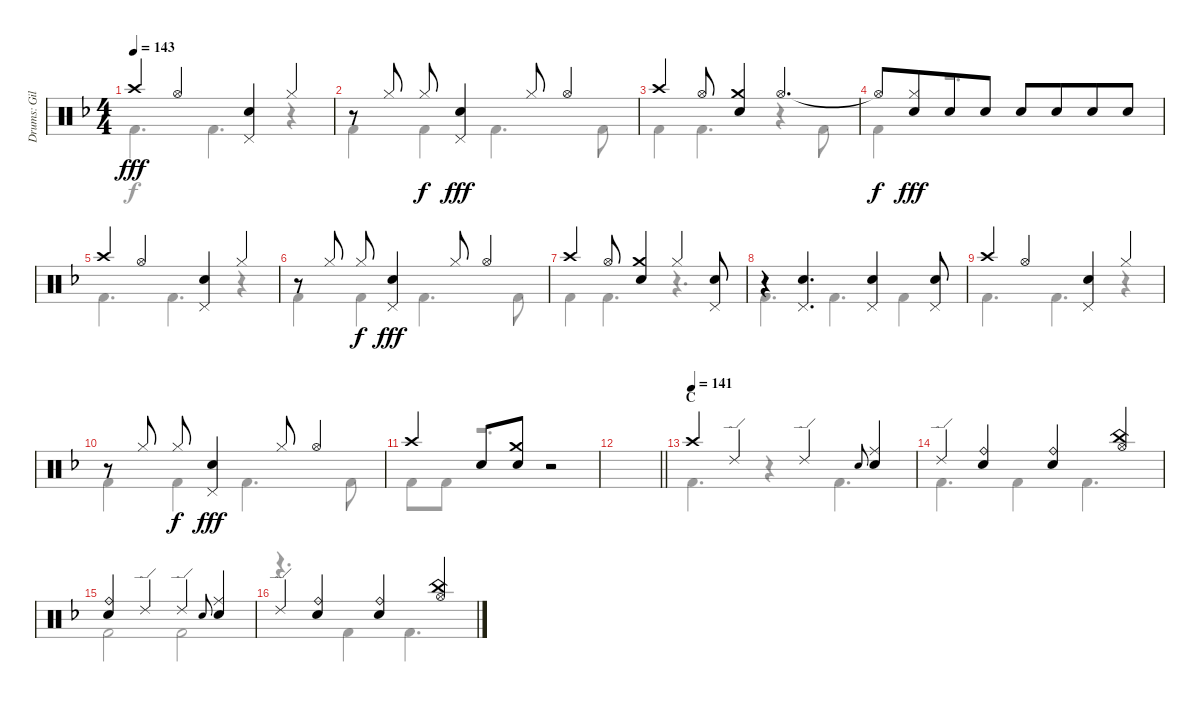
\track ("Drums: Gil" "Drums: Gil") {instrument percussion}
\staff {score}
\articulation defaults
\voice
\ts (4 4)
\tempo 143
\clef neutral
\ks f "Crash high (hit)".4{dy fff} "Hi-Hat (open)".4
("Pedal Hi-Hat (hit)" "Snare (hit) 2").4 "Hi-Hat (closed)".4 |
r.8 "Hi-Hat (closed)".8 "Hi-Hat (closed)".8{dy f} ("Pedal Hi-Hat (hit)" "Snare (hit) 2").4{dy fff} "Hi-Hat (closed)".8 "Hi-Hat (open)".4 |
"Crash high (hit)".4 "Hi-Hat (open)".8 ("Crash medium (hit)" "Snare (hit) 2").4 "Hi-Hat (open)".4{d} |
"Hi-Hat (open)"{t}.8{dy f} ("Hi-Hat (closed)" "Snare (hit) 2").8{dy fff beam merge} "Snare (hit) 2".8 "Snare (hit) 2".8 "Snare (hit) 2".8 "Snare (hit) 2".8{beam merge} "Snare (hit) 2".8 "Snare (hit) 2".8 |
"Crash high (hit)".4 "Hi-Hat (open)".4 ("Pedal Hi-Hat (hit)" "Snare (hit) 2").4 "Hi-Hat (closed)".4 |
r.8 "Hi-Hat (closed)".8 "Hi-Hat (closed)".8{dy f} ("Pedal Hi-Hat (hit)" "Snare (hit) 2").4{dy fff} "Hi-Hat (closed)".8 "Hi-Hat (open)".4 |
"Crash high (hit)".4 "Hi-Hat (open)".8 ("Crash medium (hit)" "Snare (hit) 2").4 "Hi-Hat (closed)".4 ("Pedal Hi-Hat (hit)" "Snare (hit) 2").8 |
r.4 ("Pedal Hi-Hat (hit)" "Snare (hit) 2").4{d} ("Pedal Hi-Hat (hit)" "Snare (hit) 2").4 ("Pedal Hi-Hat (hit)" "Snare (hit) 2").8 |
"Crash high (hit)".4 "Hi-Hat (open)".4 ("Pedal Hi-Hat (hit)" "Snare (hit) 2").4 "Hi-Hat (closed)".4 |
r.8 "Hi-Hat (closed)".8 "Hi-Hat (closed)".8{dy f} ("Pedal Hi-Hat (hit)" "Snare (hit) 2").4{dy fff} "Hi-Hat (closed)".8 "Hi-Hat (open)".4 |
"Crash high (hit)".4 "Snare (hit) 2".8 ("Crash medium (hit)" "Snare (hit) 2").8 r.2 |
\barLineRight lightlight
|
\section ("" "C")
\tempo (141)
"Crash high (hit)".4 "Ride (edge) 2".4 "Ride (edge) 2".4 "Electric Snare (hit)".8{gr onbeat} ("Ride (middle)" "Snare (hit) 2").4 |
"Ride (edge) 2".4 ("Ride (bell)" "Snare (hit) 2").4 ("Ride (bell)" "Snare (hit) 2").4 ("China (hit)" "Hi-Hat (open)").4 |
("Ride (bell)" "Snare (hit) 2").4 "Ride (edge) 2".4 "Ride (edge) 2".4 "Electric Snare (hit)".8{gr onbeat} ("Ride (middle)" "Snare (hit) 2").4 |
"Ride (edge) 2".4 ("Ride (bell)" "Snare (hit) 2").4 ("Ride (bell)" "Snare (hit) 2").4 ("China (hit)" "Hi-Hat (open)").4
\voice
\clef neutral
\ottava regular
\simile none
\ks f "Kick (hit) 2".4{d dy f} "Kick (hit) 2".4{d}
r.4 |
"Kick (hit) 2".4 "Kick (hit) 2".4 "Kick (hit) 2".4{d} "Kick (hit) 2".8 |
"Kick (hit) 2".4 "Kick (hit) 2".4{d} r.4 "Kick (hit) 2".8 |
"Kick (hit) 2".4 r.2{d} |
"Kick (hit) 2".4{d} "Kick (hit) 2".4{d} r.4 |
"Kick (hit) 2".4 "Kick (hit) 2".4 "Kick (hit) 2".4{d} "Kick (hit) 2".8 |
"Kick (hit) 2".4 "Kick (hit) 2".4{d} r.4{d} |
"Kick (hit) 2".4{d} "Kick (hit) 2".4{d} "Kick (hit) 2".4 |
"Kick (hit) 2".4{d} "Kick (hit) 2".4{d} r.4 |
"Kick (hit) 2".4 "Kick (hit) 2".4 "Kick (hit) 2".4{d} "Kick (hit) 2".8 |
"Kick (hit) 2".8 "Kick (hit) 2".8 r.2{d} |
\barLineRight lightlight
|
"Kick (hit) 2".4{d} r.4 "Kick (hit) 2".4{d} |
"Kick (hit) 2".4{d} "Kick (hit) 2".4 "Kick (hit) 2".4{d} |
"Kick (hit) 2".2 "Kick (hit) 2".2 |
r.4{d} "Kick (hit) 2".4 "Kick (hit) 2".4{d}
